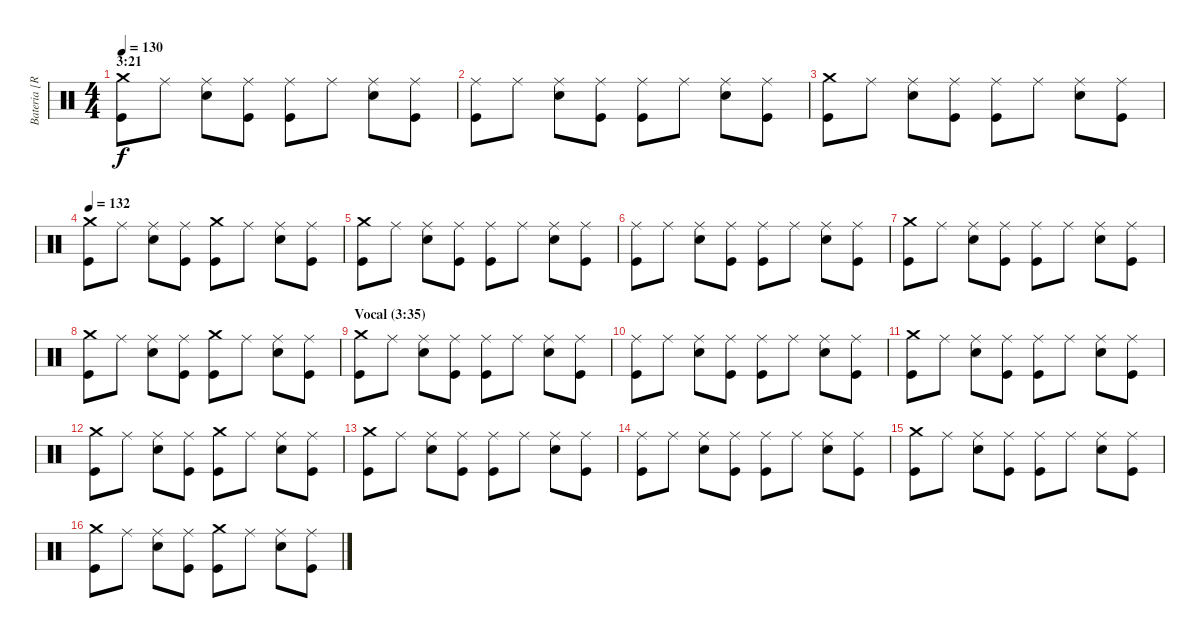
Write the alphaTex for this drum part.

\track ("Bateria [Ricardo Confessori]" "Bateria [R") {instrument percussion}
\staff {score}
\articulation defaults
\ts (4 4)
\section ("" "3:21")
\tempo 130
\clef neutral
\ks c
("Crash medium (hit)" "Kick (hit)").8{dy f} "Ride (middle)".8 ("Ride (middle)" "Electric Snare (hit)").8 ("Ride (middle)" "Kick (hit)").8 ("Ride (middle)" "Kick (hit)").8 "Ride (middle)".8 ("Ride (middle)" "Electric Snare (hit)").8 ("Ride (middle)" "Kick (hit)").8 |
("Ride (middle)" "Kick (hit)").8 "Ride (middle)".8 ("Ride (middle)" "Electric Snare (hit)").8 ("Ride (middle)" "Kick (hit)").8 ("Ride (middle)" "Kick (hit)").8 "Ride (middle)".8 ("Ride (middle)" "Electric Snare (hit)").8 ("Ride (middle)" "Kick (hit)").8 |
("Crash medium (hit)" "Kick (hit)").8 "Ride (middle)".8 ("Ride (middle)" "Electric Snare (hit)").8 ("Ride (middle)" "Kick (hit)").8 ("Ride (middle)" "Kick (hit)").8 "Ride (middle)".8 ("Ride (middle)" "Electric Snare (hit)").8 ("Ride (middle)" "Kick (hit)").8 |
\tempo 132
("Crash medium (hit)" "Kick (hit)").8 "Ride (middle)".8 ("Ride (middle)" "Electric Snare (hit)").8 ("Ride (middle)" "Kick (hit)").8 ("Crash medium (hit)" "Kick (hit)").8 "Ride (middle)".8 ("Ride (middle)" "Electric Snare (hit)").8 ("Ride (middle)" "Kick (hit)").8 |
("Crash medium (hit)" "Kick (hit)").8 "Ride (middle)".8 ("Ride (middle)" "Electric Snare (hit)").8 ("Ride (middle)" "Kick (hit)").8 ("Ride (middle)" "Kick (hit)").8 "Ride (middle)".8 ("Ride (middle)" "Electric Snare (hit)").8 ("Ride (middle)" "Kick (hit)").8 |
("Ride (middle)" "Kick (hit)").8 "Ride (middle)".8 ("Ride (middle)" "Electric Snare (hit)").8 ("Ride (middle)" "Kick (hit)").8 ("Ride (middle)" "Kick (hit)").8 "Ride (middle)".8 ("Ride (middle)" "Electric Snare (hit)").8 ("Ride (middle)" "Kick (hit)").8 |
("Crash medium (hit)" "Kick (hit)").8 "Ride (middle)".8 ("Ride (middle)" "Electric Snare (hit)").8 ("Ride (middle)" "Kick (hit)").8 ("Ride (middle)" "Kick (hit)").8 "Ride (middle)".8 ("Ride (middle)" "Electric Snare (hit)").8 ("Ride (middle)" "Kick (hit)").8 |
("Crash medium (hit)" "Kick (hit)").8 "Ride (middle)".8 ("Ride (middle)" "Electric Snare (hit)").8 ("Ride (middle)" "Kick (hit)").8 ("Crash medium (hit)" "Kick (hit)").8 "Ride (middle)".8 ("Ride (middle)" "Electric Snare (hit)").8 ("Ride (middle)" "Kick (hit)").8 |
\section ("" "Vocal (3:35)")
("Crash medium (hit)" "Kick (hit)").8 "Ride (middle)".8 ("Ride (middle)" "Electric Snare (hit)").8 ("Ride (middle)" "Kick (hit)").8 ("Ride (middle)" "Kick (hit)").8 "Ride (middle)".8 ("Ride (middle)" "Electric Snare (hit)").8 ("Ride (middle)" "Kick (hit)").8 |
("Ride (middle)" "Kick (hit)").8 "Ride (middle)".8 ("Ride (middle)" "Electric Snare (hit)").8 ("Ride (middle)" "Kick (hit)").8 ("Ride (middle)" "Kick (hit)").8 "Ride (middle)".8 ("Ride (middle)" "Electric Snare (hit)").8 ("Ride (middle)" "Kick (hit)").8 |
("Crash medium (hit)" "Kick (hit)").8 "Ride (middle)".8 ("Ride (middle)" "Electric Snare (hit)").8 ("Ride (middle)" "Kick (hit)").8 ("Ride (middle)" "Kick (hit)").8 "Ride (middle)".8 ("Ride (middle)" "Electric Snare (hit)").8 ("Ride (middle)" "Kick (hit)").8 |
("Crash medium (hit)" "Kick (hit)").8 "Ride (middle)".8 ("Ride (middle)" "Electric Snare (hit)").8 ("Ride (middle)" "Kick (hit)").8 ("Crash medium (hit)" "Kick (hit)").8 "Ride (middle)".8 ("Ride (middle)" "Electric Snare (hit)").8 ("Ride (middle)" "Kick (hit)").8 |
("Crash medium (hit)" "Kick (hit)").8 "Ride (middle)".8 ("Ride (middle)" "Electric Snare (hit)").8 ("Ride (middle)" "Kick (hit)").8 ("Ride (middle)" "Kick (hit)").8 "Ride (middle)".8 ("Ride (middle)" "Electric Snare (hit)").8 ("Ride (middle)" "Kick (hit)").8 |
("Ride (middle)" "Kick (hit)").8 "Ride (middle)".8 ("Ride (middle)" "Electric Snare (hit)").8 ("Ride (middle)" "Kick (hit)").8 ("Ride (middle)" "Kick (hit)").8 "Ride (middle)".8 ("Ride (middle)" "Electric Snare (hit)").8 ("Ride (middle)" "Kick (hit)").8 |
("Crash medium (hit)" "Kick (hit)").8 "Ride (middle)".8 ("Ride (middle)" "Electric Snare (hit)").8 ("Ride (middle)" "Kick (hit)").8 ("Ride (middle)" "Kick (hit)").8 "Ride (middle)".8 ("Ride (middle)" "Electric Snare (hit)").8 ("Ride (middle)" "Kick (hit)").8 |
("Crash medium (hit)" "Kick (hit)").8 "Ride (middle)".8 ("Ride (middle)" "Electric Snare (hit)").8 ("Ride (middle)" "Kick (hit)").8 ("Crash medium (hit)" "Kick (hit)").8 "Ride (middle)".8 ("Ride (middle)" "Electric Snare (hit)").8 ("Ride (middle)" "Kick (hit)").8
